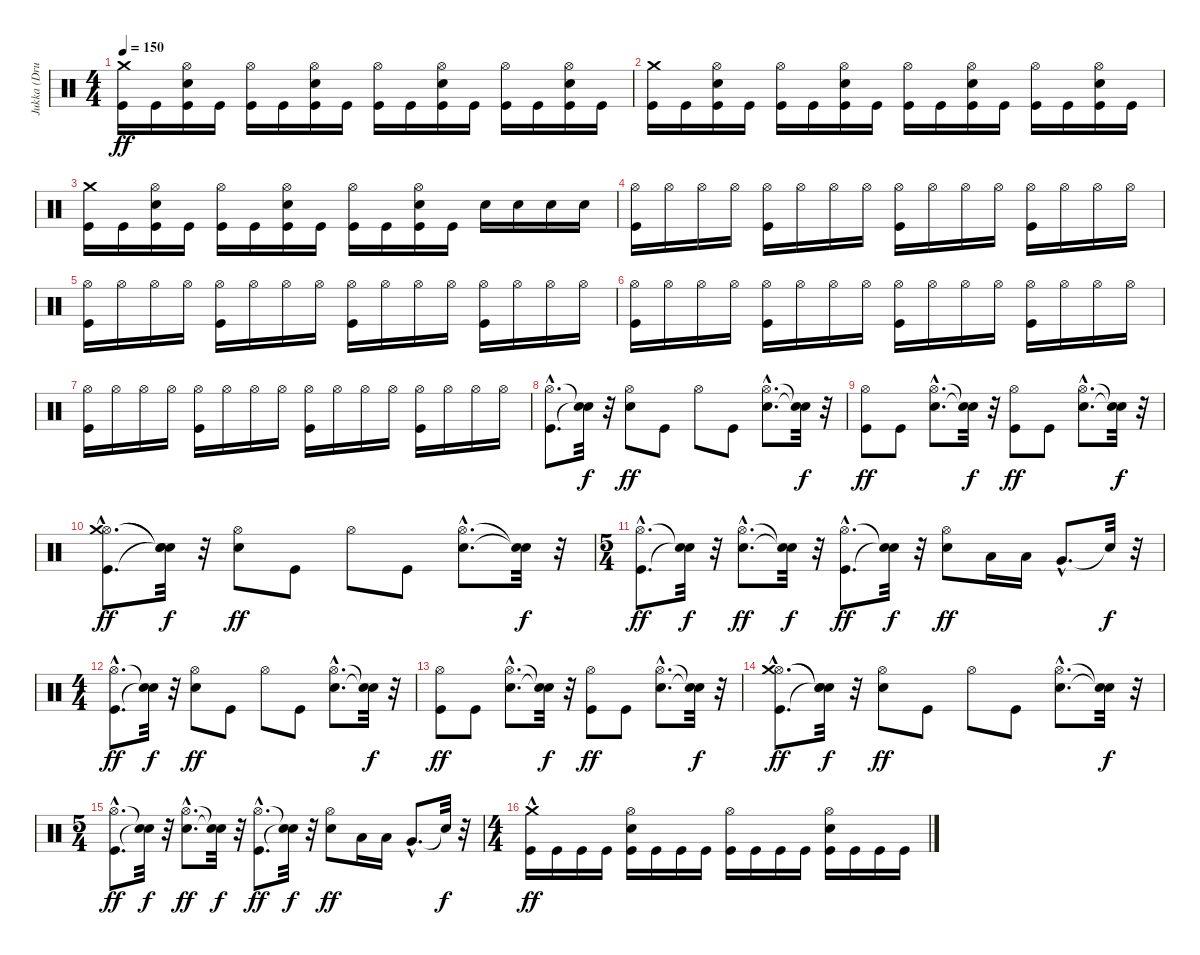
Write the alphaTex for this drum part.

\track ("Jukka (Drums)" "Jukka (Dru") {instrument percussion}
\staff {score}
\articulation defaults
\ts (4 4)
\tempo 150
\clef neutral
\ks c
("Kick (hit)" "Crash medium (hit)").16{dy ff} "Kick (hit)".16 ("Kick (hit)" "Electric Snare (hit)" "Hi-Hat (open)").16 "Kick (hit)".16 ("Kick (hit)" "Hi-Hat (open)").16 "Kick (hit)".16 ("Kick (hit)" "Electric Snare (hit)" "Hi-Hat (open)").16 "Kick (hit)".16 ("Kick (hit)" "Hi-Hat (open)").16 "Kick (hit)".16 ("Kick (hit)" "Electric Snare (hit)" "Hi-Hat (open)").16 "Kick (hit)".16 ("Kick (hit)" "Hi-Hat (open)").16 "Kick (hit)".16 ("Kick (hit)" "Electric Snare (hit)" "Hi-Hat (open)").16 "Kick (hit)".16 |
("Kick (hit)" "Crash medium (hit)").16 "Kick (hit)".16 ("Kick (hit)" "Electric Snare (hit)" "Hi-Hat (open)").16 "Kick (hit)".16 ("Kick (hit)" "Hi-Hat (open)").16 "Kick (hit)".16 ("Kick (hit)" "Electric Snare (hit)" "Hi-Hat (open)").16 "Kick (hit)".16 ("Kick (hit)" "Hi-Hat (open)").16 "Kick (hit)".16 ("Kick (hit)" "Electric Snare (hit)" "Hi-Hat (open)").16 "Kick (hit)".16 ("Kick (hit)" "Hi-Hat (open)").16 "Kick (hit)".16 ("Kick (hit)" "Electric Snare (hit)" "Hi-Hat (open)").16 "Kick (hit)".16 |
("Kick (hit)" "Crash medium (hit)").16 "Kick (hit)".16 ("Kick (hit)" "Electric Snare (hit)" "Hi-Hat (open)").16 "Kick (hit)".16 ("Kick (hit)" "Hi-Hat (open)").16 "Kick (hit)".16 ("Kick (hit)" "Electric Snare (hit)" "Hi-Hat (open)").16 "Kick (hit)".16 ("Kick (hit)" "Hi-Hat (open)").16 "Kick (hit)".16 ("Kick (hit)" "Electric Snare (hit)" "Hi-Hat (open)").16 "Kick (hit)".16 "Electric Snare (hit)".16 "Electric Snare (hit)".16 "Electric Snare (hit)".16 "Electric Snare (hit)".16 |
("Kick (hit)" "Hi-Hat (open)").16 "Hi-Hat (open)".16 "Hi-Hat (open)".16 "Hi-Hat (open)".16 ("Kick (hit)" "Hi-Hat (open)").16 "Hi-Hat (open)".16 "Hi-Hat (open)".16 "Hi-Hat (open)".16 ("Kick (hit)" "Hi-Hat (open)").16 "Hi-Hat (open)".16 "Hi-Hat (open)".16 "Hi-Hat (open)".16 ("Kick (hit)" "Hi-Hat (open)").16 "Hi-Hat (open)".16 "Hi-Hat (open)".16 "Hi-Hat (open)".16 |
("Kick (hit)" "Hi-Hat (open)").16 "Hi-Hat (open)".16 "Hi-Hat (open)".16 "Hi-Hat (open)".16 ("Kick (hit)" "Hi-Hat (open)").16 "Hi-Hat (open)".16 "Hi-Hat (open)".16 "Hi-Hat (open)".16 ("Kick (hit)" "Hi-Hat (open)").16 "Hi-Hat (open)".16 "Hi-Hat (open)".16 "Hi-Hat (open)".16 ("Kick (hit)" "Hi-Hat (open)").16 "Hi-Hat (open)".16 "Hi-Hat (open)".16 "Hi-Hat (open)".16 |
("Kick (hit)" "Hi-Hat (open)").16 "Hi-Hat (open)".16 "Hi-Hat (open)".16 "Hi-Hat (open)".16 ("Kick (hit)" "Hi-Hat (open)").16 "Hi-Hat (open)".16 "Hi-Hat (open)".16 "Hi-Hat (open)".16 ("Kick (hit)" "Hi-Hat (open)").16 "Hi-Hat (open)".16 "Hi-Hat (open)".16 "Hi-Hat (open)".16 ("Kick (hit)" "Hi-Hat (open)").16 "Hi-Hat (open)".16 "Hi-Hat (open)".16 "Hi-Hat (open)".16 |
("Kick (hit)" "Hi-Hat (open)").16 "Hi-Hat (open)".16 "Hi-Hat (open)".16 "Hi-Hat (open)".16 ("Kick (hit)" "Hi-Hat (open)").16 "Hi-Hat (open)".16 "Hi-Hat (open)".16 "Hi-Hat (open)".16 ("Kick (hit)" "Hi-Hat (open)").16 "Hi-Hat (open)".16 "Hi-Hat (open)".16 "Hi-Hat (open)".16 ("Kick (hit)" "Hi-Hat (open)").16 "Hi-Hat (open)".16 "Hi-Hat (open)".16 "Hi-Hat (open)".16 |
("Kick (hit)"{hac} "Hi-Hat (open)"{hac}).8{d} ("Snare (hit)"{t} "Snare (hit)"{t}).32{dy f} r.32 ("Electric Snare (hit)" "Hi-Hat (open)").8{dy ff} "Kick (hit)".8 "Hi-Hat (open)".8 "Kick (hit)".8 ("Electric Snare (hit)"{hac} "Hi-Hat (open)"{hac}).8{d} ("Snare (hit)"{t} "Snare (hit)"{t}).32{dy f} r.32 |
("Kick (hit)" "Hi-Hat (open)").8{dy ff} "Kick (hit)".8 ("Electric Snare (hit)"{hac} "Hi-Hat (open)"{hac}).8{d} ("Snare (hit)"{t} "Snare (hit)"{t}).32{dy f} r.32 ("Kick (hit)" "Hi-Hat (open)").8{dy ff} "Kick (hit)".8 ("Electric Snare (hit)"{hac} "Hi-Hat (open)"{hac}).8{d} ("Snare (hit)"{t} "Snare (hit)"{t}).32{dy f} r.32 |
("Kick (hit)"{hac} "Hi-Hat (open)"{hac} "Crash medium (hit)"{hac}).8{d dy ff} ("Snare (hit)"{t} "Snare (hit)"{t} "Snare (hit)"{t}).32{dy f} r.32 ("Electric Snare (hit)" "Hi-Hat (open)").8{dy ff} "Kick (hit)".8 "Hi-Hat (open)".8 "Kick (hit)".8 ("Electric Snare (hit)"{hac} "Hi-Hat (open)"{hac}).8{d} ("Snare (hit)"{t} "Snare (hit)"{t}).32{dy f} r.32 |
\ts (5 4)
("Kick (hit)"{hac} "Hi-Hat (open)"{hac}).8{d dy ff} ("Snare (hit)"{t} "Snare (hit)"{t}).32{dy f} r.32 ("Electric Snare (hit)"{hac} "Hi-Hat (open)"{hac}).8{d dy ff} ("Snare (hit)"{t} "Snare (hit)"{t}).32{dy f} r.32 ("Kick (hit)"{hac} "Hi-Hat (open)"{hac}).8{d dy ff} ("Snare (hit)"{t} "Snare (hit)"{t}).32{dy f} r.32 ("Electric Snare (hit)" "Hi-Hat (open)").8{dy ff} "Low Tom (hit)".16 "Low Tom (hit)".16 "Very Low Tom (hit)"{hac}.8{d} "Snare (hit)"{t}.32{dy f} r.32 |
\ts (4 4)
("Kick (hit)"{hac} "Hi-Hat (open)"{hac}).8{d dy ff} ("Snare (hit)"{t} "Snare (hit)"{t}).32{dy f} r.32 ("Electric Snare (hit)" "Hi-Hat (open)").8{dy ff} "Kick (hit)".8 "Hi-Hat (open)".8 "Kick (hit)".8 ("Electric Snare (hit)"{hac} "Hi-Hat (open)"{hac}).8{d} ("Snare (hit)"{t} "Snare (hit)"{t}).32{dy f} r.32 |
("Kick (hit)" "Hi-Hat (open)").8{dy ff} "Kick (hit)".8 ("Electric Snare (hit)"{hac} "Hi-Hat (open)"{hac}).8{d} ("Snare (hit)"{t} "Snare (hit)"{t}).32{dy f} r.32 ("Kick (hit)" "Hi-Hat (open)").8{dy ff} "Kick (hit)".8 ("Electric Snare (hit)"{hac} "Hi-Hat (open)"{hac}).8{d} ("Snare (hit)"{t} "Snare (hit)"{t}).32{dy f} r.32 |
("Kick (hit)"{hac} "Hi-Hat (open)"{hac} "Crash medium (hit)"{hac}).8{d dy ff} ("Snare (hit)"{t} "Snare (hit)"{t} "Snare (hit)"{t}).32{dy f} r.32 ("Electric Snare (hit)" "Hi-Hat (open)").8{dy ff} "Kick (hit)".8 "Hi-Hat (open)".8 "Kick (hit)".8 ("Electric Snare (hit)"{hac} "Hi-Hat (open)"{hac}).8{d} ("Snare (hit)"{t} "Snare (hit)"{t}).32{dy f} r.32 |
\ts (5 4)
("Kick (hit)"{hac} "Hi-Hat (open)"{hac}).8{d dy ff} ("Snare (hit)"{t} "Snare (hit)"{t}).32{dy f} r.32 ("Electric Snare (hit)"{hac} "Hi-Hat (open)"{hac}).8{d dy ff} ("Snare (hit)"{t} "Snare (hit)"{t}).32{dy f} r.32 ("Kick (hit)"{hac} "Hi-Hat (open)"{hac}).8{d dy ff} ("Snare (hit)"{t} "Snare (hit)"{t}).32{dy f} r.32 ("Electric Snare (hit)" "Hi-Hat (open)").8{dy ff} "Low Tom (hit)".16 "Low Tom (hit)".16 "Very Low Tom (hit)"{hac}.8{d} "Snare (hit)"{t}.32{dy f} r.32 |
\ts (4 4)
("Kick (hit)" "Crash medium (hit)"{hac}).16{dy ff} "Kick (hit)".16 "Kick (hit)".16 "Kick (hit)".16 ("Kick (hit)" "Electric Snare (hit)" "Hi-Hat (open)").16 "Kick (hit)".16 "Kick (hit)".16 "Kick (hit)".16 ("Kick (hit)" "Hi-Hat (open)").16 "Kick (hit)".16 "Kick (hit)".16 "Kick (hit)".16 ("Kick (hit)" "Electric Snare (hit)" "Hi-Hat (open)").16 "Kick (hit)".16 "Kick (hit)".16 "Kick (hit)".16
